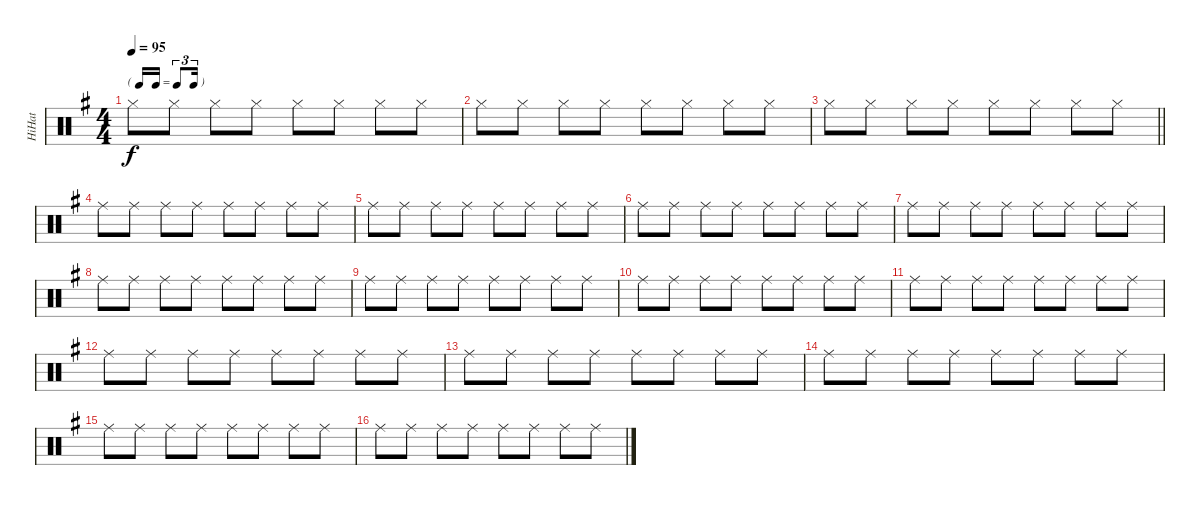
\track ("HiHat" "HiHat") {instrument percussion}
\staff {score}
\articulation defaults
\ts (4 4)
\tf triplet16th
\tempo 95
\clef neutral
\ks eminor "Hi-Hat (closed)".8{dy f} "Hi-Hat (closed)".8 "Hi-Hat (closed)".8 "Hi-Hat (closed)".8 "Hi-Hat (closed)".8 "Hi-Hat (closed)".8 "Hi-Hat (closed)".8 "Hi-Hat (closed)".8
|
"Hi-Hat (closed)".8 "Hi-Hat (closed)".8 "Hi-Hat (closed)".8 "Hi-Hat (closed)".8 "Hi-Hat (closed)".8 "Hi-Hat (closed)".8 "Hi-Hat (closed)".8 "Hi-Hat (closed)".8 |
\barLineRight lightlight "Hi-Hat (closed)".8 "Hi-Hat (closed)".8 "Hi-Hat (closed)".8 "Hi-Hat (closed)".8 "Hi-Hat (closed)".8 "Hi-Hat (closed)".8 "Hi-Hat (closed)".8 "Hi-Hat (closed)".8
|
"Ride (middle)".8 "Ride (middle)".8 "Ride (middle)".8 "Ride (middle)".8 "Ride (middle)".8 "Ride (middle)".8 "Ride (middle)".8 "Ride (middle)".8 |
"Ride (middle)".8 "Ride (middle)".8 "Ride (middle)".8 "Ride (middle)".8 "Ride (middle)".8 "Ride (middle)".8 "Ride (middle)".8 "Ride (middle)".8 |
"Ride (middle)".8 "Ride (middle)".8 "Ride (middle)".8 "Ride (middle)".8 "Ride (middle)".8 "Ride (middle)".8 "Ride (middle)".8 "Ride (middle)".8 |
"Ride (middle)".8 "Ride (middle)".8 "Ride (middle)".8 "Ride (middle)".8 "Ride (middle)".8 "Ride (middle)".8 "Ride (middle)".8 "Ride (middle)".8 |
"Ride (middle)".8 "Ride (middle)".8 "Ride (middle)".8 "Ride (middle)".8 "Ride (middle)".8 "Ride (middle)".8 "Ride (middle)".8 "Ride (middle)".8 |
"Ride (middle)".8 "Ride (middle)".8 "Ride (middle)".8 "Ride (middle)".8 "Ride (middle)".8 "Ride (middle)".8 "Ride (middle)".8 "Ride (middle)".8 |
"Ride (middle)".8 "Ride (middle)".8 "Ride (middle)".8 "Ride (middle)".8 "Ride (middle)".8 "Ride (middle)".8 "Ride (middle)".8 "Ride (middle)".8 |
"Ride (middle)".8 "Ride (middle)".8 "Ride (middle)".8 "Ride (middle)".8 "Ride (middle)".8 "Ride (middle)".8 "Ride (middle)".8 "Ride (middle)".8 |
"Ride (middle)".8 "Ride (middle)".8 "Ride (middle)".8 "Ride (middle)".8 "Ride (middle)".8 "Ride (middle)".8 "Ride (middle)".8 "Ride (middle)".8 |
"Ride (middle)".8 "Ride (middle)".8 "Ride (middle)".8 "Ride (middle)".8 "Ride (middle)".8 "Ride (middle)".8 "Ride (middle)".8 "Ride (middle)".8 |
"Ride (middle)".8 "Ride (middle)".8 "Ride (middle)".8 "Ride (middle)".8 "Ride (middle)".8 "Ride (middle)".8 "Ride (middle)".8 "Ride (middle)".8 |
"Ride (middle)".8 "Ride (middle)".8 "Ride (middle)".8 "Ride (middle)".8 "Ride (middle)".8 "Ride (middle)".8 "Ride (middle)".8 "Ride (middle)".8 |
"Ride (middle)".8 "Ride (middle)".8 "Ride (middle)".8 "Ride (middle)".8 "Ride (middle)".8 "Ride (middle)".8 "Ride (middle)".8 "Ride (middle)".8
